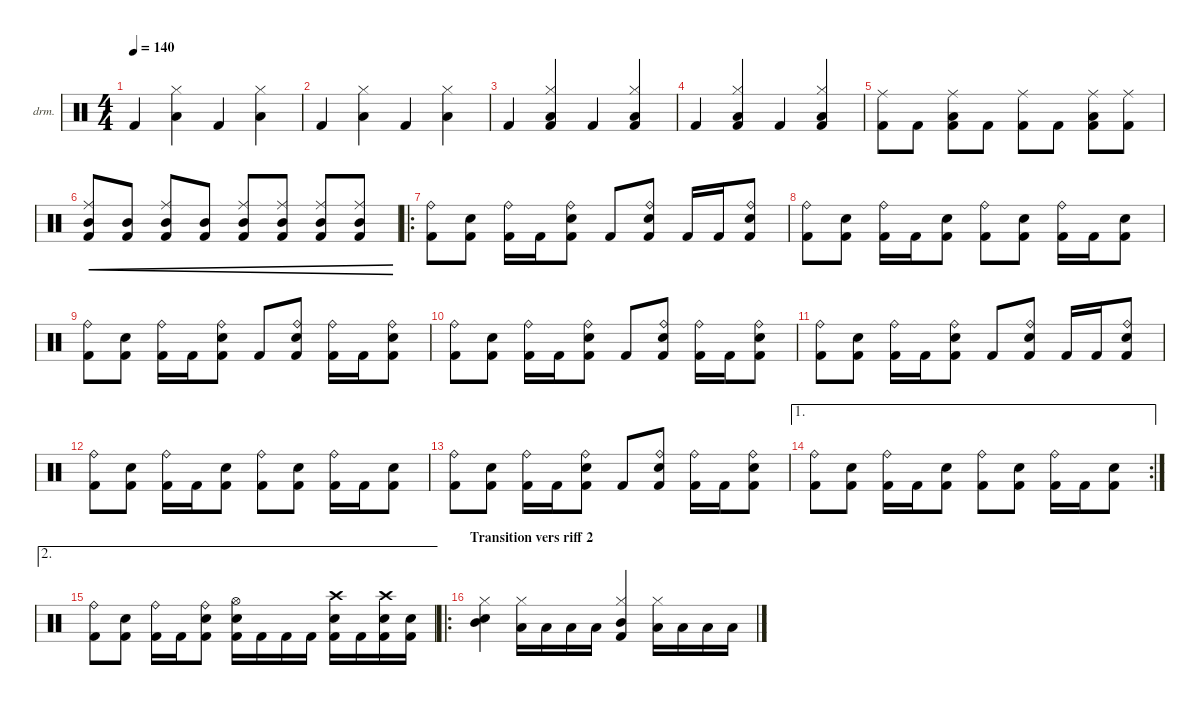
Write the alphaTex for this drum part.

\defaultSystemsLayout 4
\hideDynamics
\bracketExtendMode nobrackets
\firstSystemTrackNameOrientation horizontal
\otherSystemsTrackNameOrientation horizontal
\track ("Drumkit" "drm.") {instrument percussion}
\staff {score}
\articulation defaults
\ts (4 4)
\tempo 140
\clef neutral
\ks c "Kick (hit) 2".4{dy mf}
("Hi-Hat (closed)" "Low Tom (hit)").4 "Kick (hit) 2".4 ("Hi-Hat (closed)" "Low Tom (hit)").4 |
"Kick (hit) 2".4 ("Hi-Hat (closed)" "Low Tom (hit)").4 "Kick (hit) 2".4 ("Hi-Hat (closed)" "Low Tom (hit)").4 |
"Kick (hit) 2".4 ("Hi-Hat (closed)" "Low Tom (hit)" "Kick (hit) 2").4 "Kick (hit) 2".4 ("Hi-Hat (closed)" "Low Tom (hit)" "Kick (hit) 2").4 |
"Kick (hit) 2".4 ("Hi-Hat (closed)" "Low Tom (hit)" "Kick (hit) 2").4 "Kick (hit) 2".4 ("Hi-Hat (closed)" "Low Tom (hit)" "Kick (hit) 2").4 |
("Ride (middle)" "Kick (hit) 2").8 "Kick (hit) 2".8 ("Low Tom (hit)" "Ride (middle)" "Kick (hit) 2").8 "Kick (hit) 2".8 ("Ride (middle)" "Kick (hit) 2").8 "Kick (hit) 2".8 ("Low Tom (hit)" "Ride (middle)" "Kick (hit) 2").8 ("Ride (middle)" "Kick (hit) 2").8 |
("Mid Tom (hit)" "Kick (hit) 2" "Ride (middle)").8{cre} ("Mid Tom (hit)" "Kick (hit) 2").8{cre} ("Mid Tom (hit)" "Kick (hit) 2" "Ride (middle)").8{cre} ("Mid Tom (hit)" "Kick (hit) 2").8{cre} ("Mid Tom (hit)" "Kick (hit) 2" "Ride (middle)").8{cre} ("Mid Tom (hit)" "Kick (hit) 2" "Ride (middle)").8{cre} ("Mid Tom (hit)" "Kick (hit) 2" "Ride (middle)").8{cre} ("Mid Tom (hit)" "Kick (hit) 2" "Ride (middle)").8{cre} |
\ro
("Ride (bell)" "Kick (hit) 2").8 ("Snare (hit) 2" "Kick (hit) 2").8 ("Kick (hit) 2" "Ride (bell)").16 "Kick (hit) 2".16 ("Snare (hit) 2" "Kick (hit) 2" "Ride (bell)").8 "Kick (hit) 2".8 ("Snare (hit) 2" "Kick (hit) 2" "Ride (bell)").8 "Kick (hit) 2".16 "Kick (hit) 2".16 ("Snare (hit) 2" "Kick (hit) 2" "Ride (bell)").8 |
("Kick (hit) 2" "Ride (bell)").8 ("Snare (hit) 2" "Kick (hit) 2").8 ("Kick (hit) 2" "Ride (bell)").16 "Kick (hit) 2".16 ("Snare (hit) 2" "Kick (hit) 2").8 ("Kick (hit) 2" "Ride (bell)").8 ("Snare (hit) 2" "Kick (hit) 2").8 ("Kick (hit) 2" "Ride (bell)").16 "Kick (hit) 2".16 ("Snare (hit) 2" "Kick (hit) 2").8 |
("Kick (hit) 2" "Ride (bell)").8 ("Snare (hit) 2" "Kick (hit) 2").8 ("Kick (hit) 2" "Ride (bell)").16 "Kick (hit) 2".16 ("Snare (hit) 2" "Kick (hit) 2" "Ride (bell)").8 "Kick (hit) 2".8 ("Snare (hit) 2" "Kick (hit) 2" "Ride (bell)").8 ("Kick (hit) 2" "Ride (bell)").16 "Kick (hit) 2".16 ("Snare (hit) 2" "Kick (hit) 2" "Ride (bell)").8 |
("Kick (hit) 2" "Ride (bell)").8 ("Snare (hit) 2" "Kick (hit) 2").8 ("Kick (hit) 2" "Ride (bell)").16 "Kick (hit) 2".16 ("Snare (hit) 2" "Kick (hit) 2" "Ride (bell)").8 "Kick (hit) 2".8 ("Snare (hit) 2" "Kick (hit) 2" "Ride (bell)").8 ("Kick (hit) 2" "Ride (bell)").16 "Kick (hit) 2".16 ("Snare (hit) 2" "Kick (hit) 2" "Ride (bell)").8 |
("Kick (hit) 2" "Ride (bell)").8 ("Snare (hit) 2" "Kick (hit) 2").8 ("Kick (hit) 2" "Ride (bell)").16 "Kick (hit) 2".16 ("Snare (hit) 2" "Kick (hit) 2" "Ride (bell)").8 "Kick (hit) 2".8 ("Snare (hit) 2" "Kick (hit) 2" "Ride (bell)").8 "Kick (hit) 2".16 "Kick (hit) 2".16 ("Snare (hit) 2" "Kick (hit) 2" "Ride (bell)").8 |
("Kick (hit) 2" "Ride (bell)").8 ("Snare (hit) 2" "Kick (hit) 2").8 ("Kick (hit) 2" "Ride (bell)").16 "Kick (hit) 2".16 ("Snare (hit) 2" "Kick (hit) 2").8 ("Kick (hit) 2" "Ride (bell)").8 ("Snare (hit) 2" "Kick (hit) 2").8 ("Kick (hit) 2" "Ride (bell)").16 "Kick (hit) 2".16 ("Snare (hit) 2" "Kick (hit) 2").8 |
("Kick (hit) 2" "Ride (bell)").8 ("Snare (hit) 2" "Kick (hit) 2").8 ("Kick (hit) 2" "Ride (bell)").16 "Kick (hit) 2".16 ("Snare (hit) 2" "Kick (hit) 2" "Ride (bell)").8 "Kick (hit) 2".8 ("Snare (hit) 2" "Kick (hit) 2" "Ride (bell)").8 ("Kick (hit) 2" "Ride (bell)").16 "Kick (hit) 2".16 ("Snare (hit) 2" "Kick (hit) 2" "Ride (bell)").8 |
\ae 1
\rc 2
("Kick (hit) 2" "Ride (bell)").8 ("Snare (hit) 2" "Kick (hit) 2").8 ("Kick (hit) 2" "Ride (bell)").16 "Kick (hit) 2".16 ("Snare (hit) 2" "Kick (hit) 2").8 ("Kick (hit) 2" "Ride (bell)").8 ("Snare (hit) 2" "Kick (hit) 2").8 ("Kick (hit) 2" "Ride (bell)").16 "Kick (hit) 2".16 ("Snare (hit) 2" "Kick (hit) 2").8 |
\ae 2
("Kick (hit) 2" "Ride (bell)").8 ("Snare (hit) 2" "Kick (hit) 2").8 ("Kick (hit) 2" "Ride (bell)").16 "Kick (hit) 2".16 ("Snare (hit) 2" "Kick (hit) 2" "Ride (bell)").8 ("Hi-Hat (open)" "Snare (hit) 2" "Kick (hit) 2").16 "Kick (hit) 2".16 "Kick (hit) 2".16 "Kick (hit) 2".16 ("Crash high (hit)" "Snare (hit) 2" "Kick (hit) 2").16 "Kick (hit) 2".16 ("Crash high (hit)" "Snare (hit) 2" "Kick (hit) 2").16 ("Snare (hit) 2" "Kick (hit) 2").16 |
\ro
\section ("" "Transition vers riff 2")
("Snare (hit) 2" "Mid Tom (hit)" "Hi-Hat (closed)").4{dy fff} ("Low Tom (hit)" "Hi-Hat (closed)").16 "Low Tom (hit)".16 "Low Tom (hit)".16 "Low Tom (hit)".16 ("Mid Tom (hit)" "Kick (hit) 2" "Hi-Hat (closed)").4 ("Low Tom (hit)" "Hi-Hat (closed)").16 "Low Tom (hit)".16 "Low Tom (hit)".16 "Low Tom (hit)".16
